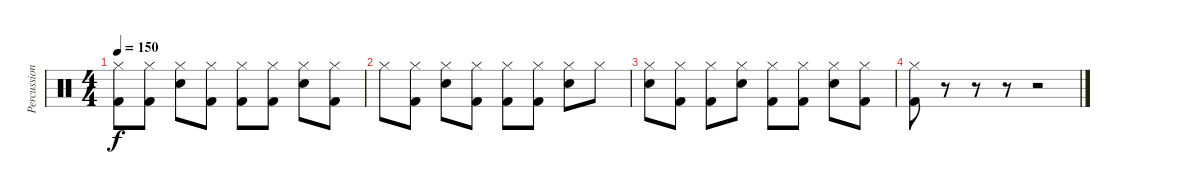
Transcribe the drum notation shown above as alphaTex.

\track ("Percussion" "Percussion") {instrument percussion}
\staff {score}
\articulation defaults
\ts (4 4)
\tempo 150
\clef neutral
\ks c
("Hi-Hat (closed)" "Kick (hit) 2").8{dy f} ("Hi-Hat (closed)" "Kick (hit) 2").8 ("Electric Snare (hit)" "Hi-Hat (closed)").8 ("Hi-Hat (closed)" "Kick (hit) 2").8 ("Hi-Hat (closed)" "Kick (hit) 2").8 ("Hi-Hat (closed)" "Kick (hit) 2").8 ("Electric Snare (hit)" "Hi-Hat (closed)").8 ("Hi-Hat (closed)" "Kick (hit) 2").8 |
"Hi-Hat (closed)".8 ("Hi-Hat (closed)" "Kick (hit) 2").8 ("Electric Snare (hit)" "Hi-Hat (closed)").8 ("Hi-Hat (closed)" "Kick (hit) 2").8 ("Hi-Hat (closed)" "Kick (hit) 2").8 ("Hi-Hat (closed)" "Kick (hit) 2").8 ("Electric Snare (hit)" "Hi-Hat (closed)").8 "Hi-Hat (closed)".8 |
("Electric Snare (hit)" "Hi-Hat (closed)").8 ("Hi-Hat (closed)" "Kick (hit) 2").8 ("Hi-Hat (closed)" "Kick (hit) 2").8 ("Electric Snare (hit)" "Hi-Hat (closed)").8 ("Hi-Hat (closed)" "Kick (hit) 2").8 ("Hi-Hat (closed)" "Kick (hit) 2").8 ("Electric Snare (hit)" "Hi-Hat (closed)").8 ("Hi-Hat (closed)" "Kick (hit) 2").8 |
("Hi-Hat (closed)" "Kick (hit) 2").8 r.8 r.8 r.8 r.2
